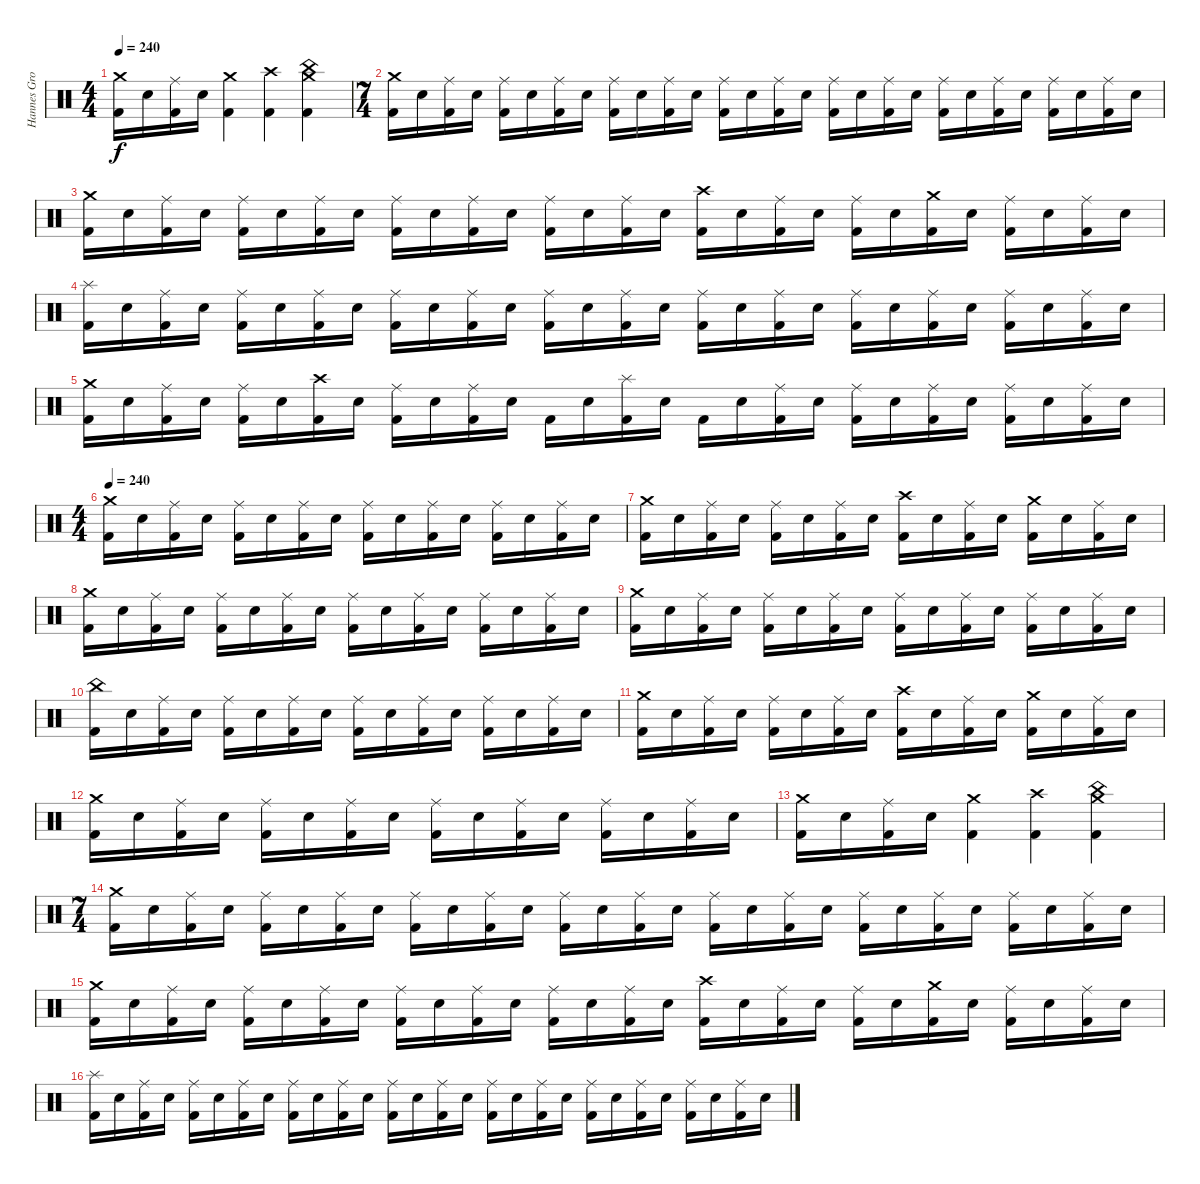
\track ("Hannes Grossmann" "Hannes Gro") {instrument percussion}
\staff {score}
\articulation defaults
\ts (4 4)
\tempo 240
\clef neutral
\ks c
("Crash medium (hit)" "Kick (hit) 2").16{dy f} "Electric Snare (hit)".16 ("Ride (middle)" "Kick (hit) 2").16 "Electric Snare (hit)".16 ("Crash medium (hit)" "Kick (hit) 2").4 ("Crash high (hit)" "Kick (hit) 2").4 ("Crash medium (hit)" "China (hit)" "Kick (hit) 2").4 |
\ts (7 4)
("Crash medium (hit)" "Kick (hit) 2").16 "Electric Snare (hit)".16 ("Ride (middle)" "Kick (hit) 2").16 "Electric Snare (hit)".16 ("Ride (middle)" "Kick (hit) 2").16 "Electric Snare (hit)".16 ("Ride (middle)" "Kick (hit) 2").16 "Electric Snare (hit)".16 ("Ride (middle)" "Kick (hit) 2").16 "Electric Snare (hit)".16 ("Ride (middle)" "Kick (hit) 2").16 "Electric Snare (hit)".16 ("Ride (middle)" "Kick (hit) 2").16 "Electric Snare (hit)".16 ("Ride (middle)" "Kick (hit) 2").16 "Electric Snare (hit)".16 ("Ride (middle)" "Kick (hit) 2").16 "Electric Snare (hit)".16 ("Ride (middle)" "Kick (hit) 2").16 "Electric Snare (hit)".16 ("Ride (middle)" "Kick (hit) 2").16 "Electric Snare (hit)".16 ("Ride (middle)" "Kick (hit) 2").16 "Electric Snare (hit)".16 ("Ride (middle)" "Kick (hit) 2").16 "Electric Snare (hit)".16 ("Ride (middle)" "Kick (hit) 2").16 "Electric Snare (hit)".16 |
("Crash medium (hit)" "Kick (hit) 2").16 "Electric Snare (hit)".16 ("Ride (middle)" "Kick (hit) 2").16 "Electric Snare (hit)".16 ("Ride (middle)" "Kick (hit) 2").16 "Electric Snare (hit)".16 ("Ride (middle)" "Kick (hit) 2").16 "Electric Snare (hit)".16 ("Ride (middle)" "Kick (hit) 2").16 "Electric Snare (hit)".16 ("Ride (middle)" "Kick (hit) 2").16 "Electric Snare (hit)".16 ("Ride (middle)" "Kick (hit) 2").16 "Electric Snare (hit)".16 ("Ride (middle)" "Kick (hit) 2").16 "Electric Snare (hit)".16 ("Crash high (hit)" "Kick (hit) 2").16 "Electric Snare (hit)".16 ("Ride (middle)" "Kick (hit) 2").16 "Electric Snare (hit)".16 ("Ride (middle)" "Kick (hit) 2").16 "Electric Snare (hit)".16 ("Crash medium (hit)" "Kick (hit) 2").16 "Electric Snare (hit)".16 ("Ride (middle)" "Kick (hit) 2").16 "Electric Snare (hit)".16 ("Ride (middle)" "Kick (hit) 2").16 "Electric Snare (hit)".16 |
("Splash (hit)" "Kick (hit) 2").16 "Electric Snare (hit)".16 ("Ride (middle)" "Kick (hit) 2").16 "Electric Snare (hit)".16 ("Ride (middle)" "Kick (hit) 2").16 "Electric Snare (hit)".16 ("Ride (middle)" "Kick (hit) 2").16 "Electric Snare (hit)".16 ("Ride (middle)" "Kick (hit) 2").16 "Electric Snare (hit)".16 ("Ride (middle)" "Kick (hit) 2").16 "Electric Snare (hit)".16 ("Ride (middle)" "Kick (hit) 2").16 "Electric Snare (hit)".16 ("Ride (middle)" "Kick (hit) 2").16 "Electric Snare (hit)".16 ("Ride (middle)" "Kick (hit) 2").16 "Electric Snare (hit)".16 ("Ride (middle)" "Kick (hit) 2").16 "Electric Snare (hit)".16 ("Ride (middle)" "Kick (hit) 2").16 "Electric Snare (hit)".16 ("Ride (middle)" "Kick (hit) 2").16 "Electric Snare (hit)".16 ("Ride (middle)" "Kick (hit) 2").16 "Electric Snare (hit)".16 ("Ride (middle)" "Kick (hit) 2").16 "Electric Snare (hit)".16 |
("Crash medium (hit)" "Kick (hit) 2").16 "Electric Snare (hit)".16 ("Ride (middle)" "Kick (hit) 2").16 "Electric Snare (hit)".16 ("Ride (middle)" "Kick (hit) 2").16 "Electric Snare (hit)".16 ("Crash high (hit)" "Kick (hit) 2").16 "Electric Snare (hit)".16 ("Ride (middle)" "Kick (hit) 2").16 "Electric Snare (hit)".16 ("Ride (middle)" "Kick (hit) 2").16 "Electric Snare (hit)".16 "Kick (hit) 2".16 "Electric Snare (hit)".16 ("Splash (hit)" "Kick (hit) 2").16 "Electric Snare (hit)".16 "Kick (hit) 2".16 "Electric Snare (hit)".16 ("Ride (middle)" "Kick (hit) 2").16 "Electric Snare (hit)".16 ("Ride (middle)" "Kick (hit) 2").16 "Electric Snare (hit)".16 ("Ride (middle)" "Kick (hit) 2").16 "Electric Snare (hit)".16 ("Ride (middle)" "Kick (hit) 2").16 "Electric Snare (hit)".16 ("Ride (middle)" "Kick (hit) 2").16 "Electric Snare (hit)".16 |
\ts (4 4)
\tempo 240
("Crash medium (hit)" "Kick (hit) 2").16 "Electric Snare (hit)".16 ("Ride (middle)" "Kick (hit) 2").16 "Electric Snare (hit)".16 ("Ride (middle)" "Kick (hit) 2").16 "Electric Snare (hit)".16 ("Ride (middle)" "Kick (hit) 2").16 "Electric Snare (hit)".16 ("Ride (middle)" "Kick (hit) 2").16 "Electric Snare (hit)".16 ("Ride (middle)" "Kick (hit) 2").16 "Electric Snare (hit)".16 ("Ride (middle)" "Kick (hit) 2").16 "Electric Snare (hit)".16 ("Ride (middle)" "Kick (hit) 2").16 "Electric Snare (hit)".16 |
("Crash medium (hit)" "Kick (hit) 2").16 "Electric Snare (hit)".16 ("Ride (middle)" "Kick (hit) 2").16 "Electric Snare (hit)".16 ("Ride (middle)" "Kick (hit) 2").16 "Electric Snare (hit)".16 ("Ride (middle)" "Kick (hit) 2").16 "Electric Snare (hit)".16 ("Crash high (hit)" "Kick (hit) 2").16 "Electric Snare (hit)".16 ("Ride (middle)" "Kick (hit) 2").16 "Electric Snare (hit)".16 ("Crash medium (hit)" "Kick (hit) 2").16 "Electric Snare (hit)".16 ("Ride (middle)" "Kick (hit) 2").16 "Electric Snare (hit)".16 |
("Crash medium (hit)" "Kick (hit) 2").16 "Electric Snare (hit)".16 ("Ride (middle)" "Kick (hit) 2").16 "Electric Snare (hit)".16 ("Ride (middle)" "Kick (hit) 2").16 "Electric Snare (hit)".16 ("Ride (middle)" "Kick (hit) 2").16 "Electric Snare (hit)".16 ("Ride (middle)" "Kick (hit) 2").16 "Electric Snare (hit)".16 ("Ride (middle)" "Kick (hit) 2").16 "Electric Snare (hit)".16 ("Ride (middle)" "Kick (hit) 2").16 "Electric Snare (hit)".16 ("Ride (middle)" "Kick (hit) 2").16 "Electric Snare (hit)".16 |
("Crash medium (hit)" "Kick (hit) 2").16 "Electric Snare (hit)".16 ("Ride (middle)" "Kick (hit) 2").16 "Electric Snare (hit)".16 ("Ride (middle)" "Kick (hit) 2").16 "Electric Snare (hit)".16 ("Ride (middle)" "Kick (hit) 2").16 "Electric Snare (hit)".16 ("Ride (middle)" "Kick (hit) 2").16 "Electric Snare (hit)".16 ("Ride (middle)" "Kick (hit) 2").16 "Electric Snare (hit)".16 ("Ride (middle)" "Kick (hit) 2").16 "Electric Snare (hit)".16 ("Ride (middle)" "Kick (hit) 2").16 "Electric Snare (hit)".16 |
("China (hit)" "Kick (hit) 2").16 "Electric Snare (hit)".16 ("Ride (middle)" "Kick (hit) 2").16 "Electric Snare (hit)".16 ("Ride (middle)" "Kick (hit) 2").16 "Electric Snare (hit)".16 ("Ride (middle)" "Kick (hit) 2").16 "Electric Snare (hit)".16 ("Ride (middle)" "Kick (hit) 2").16 "Electric Snare (hit)".16 ("Ride (middle)" "Kick (hit) 2").16 "Electric Snare (hit)".16 ("Ride (middle)" "Kick (hit) 2").16 "Electric Snare (hit)".16 ("Ride (middle)" "Kick (hit) 2").16 "Electric Snare (hit)".16 |
("Crash medium (hit)" "Kick (hit) 2").16 "Electric Snare (hit)".16 ("Ride (middle)" "Kick (hit) 2").16 "Electric Snare (hit)".16 ("Ride (middle)" "Kick (hit) 2").16 "Electric Snare (hit)".16 ("Ride (middle)" "Kick (hit) 2").16 "Electric Snare (hit)".16 ("Crash high (hit)" "Kick (hit) 2").16 "Electric Snare (hit)".16 ("Ride (middle)" "Kick (hit) 2").16 "Electric Snare (hit)".16 ("Crash medium (hit)" "Kick (hit) 2").16 "Electric Snare (hit)".16 ("Ride (middle)" "Kick (hit) 2").16 "Electric Snare (hit)".16 |
("Crash medium (hit)" "Kick (hit) 2").16 "Electric Snare (hit)".16 ("Ride (middle)" "Kick (hit) 2").16 "Electric Snare (hit)".16 ("Ride (middle)" "Kick (hit) 2").16 "Electric Snare (hit)".16 ("Ride (middle)" "Kick (hit) 2").16 "Electric Snare (hit)".16 ("Ride (middle)" "Kick (hit) 2").16 "Electric Snare (hit)".16 ("Ride (middle)" "Kick (hit) 2").16 "Electric Snare (hit)".16 ("Ride (middle)" "Kick (hit) 2").16 "Electric Snare (hit)".16 ("Ride (middle)" "Kick (hit) 2").16 "Electric Snare (hit)".16 |
("Crash medium (hit)" "Kick (hit) 2").16 "Electric Snare (hit)".16 ("Ride (middle)" "Kick (hit) 2").16 "Electric Snare (hit)".16 ("Crash medium (hit)" "Kick (hit) 2").4 ("Crash high (hit)" "Kick (hit) 2").4 ("Crash medium (hit)" "China (hit)" "Kick (hit) 2").4 |
\ts (7 4)
("Crash medium (hit)" "Kick (hit) 2").16 "Electric Snare (hit)".16 ("Ride (middle)" "Kick (hit) 2").16 "Electric Snare (hit)".16 ("Ride (middle)" "Kick (hit) 2").16 "Electric Snare (hit)".16 ("Ride (middle)" "Kick (hit) 2").16 "Electric Snare (hit)".16 ("Ride (middle)" "Kick (hit) 2").16 "Electric Snare (hit)".16 ("Ride (middle)" "Kick (hit) 2").16 "Electric Snare (hit)".16 ("Ride (middle)" "Kick (hit) 2").16 "Electric Snare (hit)".16 ("Ride (middle)" "Kick (hit) 2").16 "Electric Snare (hit)".16 ("Ride (middle)" "Kick (hit) 2").16 "Electric Snare (hit)".16 ("Ride (middle)" "Kick (hit) 2").16 "Electric Snare (hit)".16 ("Ride (middle)" "Kick (hit) 2").16 "Electric Snare (hit)".16 ("Ride (middle)" "Kick (hit) 2").16 "Electric Snare (hit)".16 ("Ride (middle)" "Kick (hit) 2").16 "Electric Snare (hit)".16 ("Ride (middle)" "Kick (hit) 2").16 "Electric Snare (hit)".16 |
("Crash medium (hit)" "Kick (hit) 2").16 "Electric Snare (hit)".16 ("Ride (middle)" "Kick (hit) 2").16 "Electric Snare (hit)".16 ("Ride (middle)" "Kick (hit) 2").16 "Electric Snare (hit)".16 ("Ride (middle)" "Kick (hit) 2").16 "Electric Snare (hit)".16 ("Ride (middle)" "Kick (hit) 2").16 "Electric Snare (hit)".16 ("Ride (middle)" "Kick (hit) 2").16 "Electric Snare (hit)".16 ("Ride (middle)" "Kick (hit) 2").16 "Electric Snare (hit)".16 ("Ride (middle)" "Kick (hit) 2").16 "Electric Snare (hit)".16 ("Crash high (hit)" "Kick (hit) 2").16 "Electric Snare (hit)".16 ("Ride (middle)" "Kick (hit) 2").16 "Electric Snare (hit)".16 ("Ride (middle)" "Kick (hit) 2").16 "Electric Snare (hit)".16 ("Crash medium (hit)" "Kick (hit) 2").16 "Electric Snare (hit)".16 ("Ride (middle)" "Kick (hit) 2").16 "Electric Snare (hit)".16 ("Ride (middle)" "Kick (hit) 2").16 "Electric Snare (hit)".16 |
("Splash (hit)" "Kick (hit) 2").16 "Electric Snare (hit)".16 ("Ride (middle)" "Kick (hit) 2").16 "Electric Snare (hit)".16 ("Ride (middle)" "Kick (hit) 2").16 "Electric Snare (hit)".16 ("Ride (middle)" "Kick (hit) 2").16 "Electric Snare (hit)".16 ("Ride (middle)" "Kick (hit) 2").16 "Electric Snare (hit)".16 ("Ride (middle)" "Kick (hit) 2").16 "Electric Snare (hit)".16 ("Ride (middle)" "Kick (hit) 2").16 "Electric Snare (hit)".16 ("Ride (middle)" "Kick (hit) 2").16 "Electric Snare (hit)".16 ("Ride (middle)" "Kick (hit) 2").16 "Electric Snare (hit)".16 ("Ride (middle)" "Kick (hit) 2").16 "Electric Snare (hit)".16 ("Ride (middle)" "Kick (hit) 2").16 "Electric Snare (hit)".16 ("Ride (middle)" "Kick (hit) 2").16 "Electric Snare (hit)".16 ("Ride (middle)" "Kick (hit) 2").16 "Electric Snare (hit)".16 ("Ride (middle)" "Kick (hit) 2").16 "Electric Snare (hit)".16
